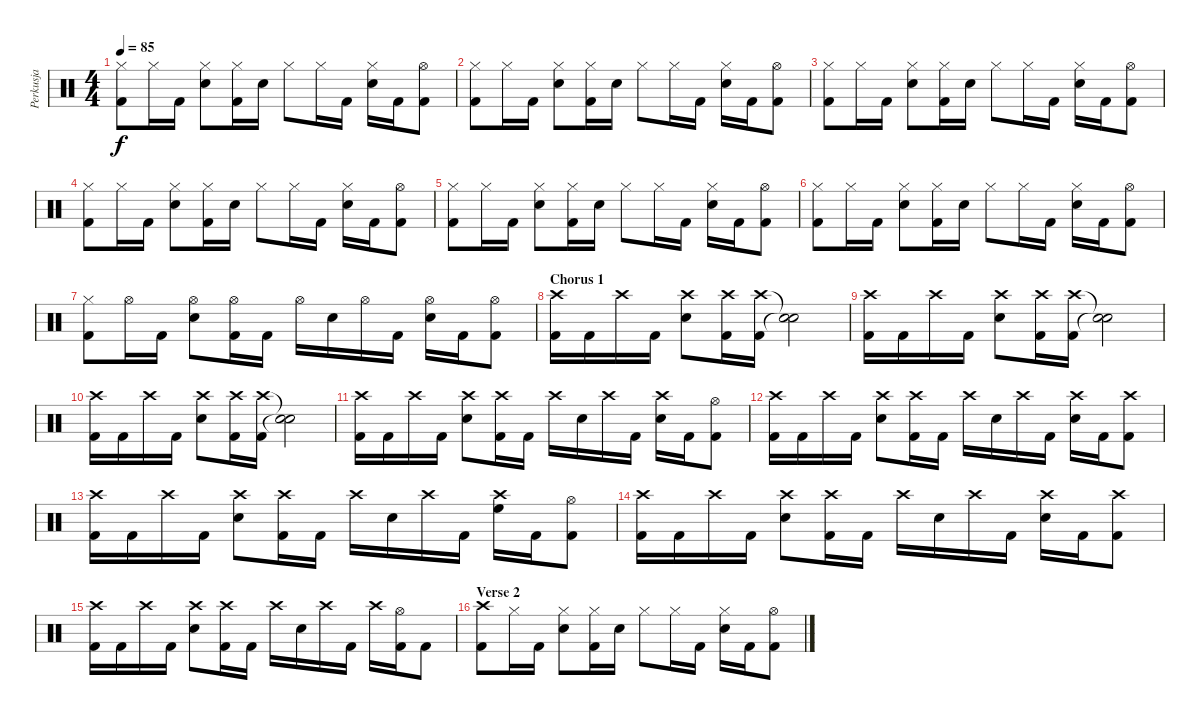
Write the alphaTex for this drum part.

\track ("Perkusja" "Perkusja") {instrument percussion}
\staff {score}
\articulation defaults
\ts (4 4)
\tempo 85
\clef neutral
\ks c
("Hi-Hat (closed)" "Kick (hit) 2").8{dy f} "Hi-Hat (closed)".16 "Kick (hit) 2".16 ("Hi-Hat (closed)" "Snare (hit) 2").8 ("Hi-Hat (closed)" "Kick (hit) 2").16 "Snare (hit) 2".16 "Hi-Hat (closed)".8 "Hi-Hat (closed)".16 "Kick (hit) 2".16 ("Hi-Hat (closed)" "Snare (hit) 2").16 "Kick (hit) 2".16 ("Hi-Hat (open)" "Kick (hit) 2").8 |
("Hi-Hat (closed)" "Kick (hit) 2").8 "Hi-Hat (closed)".16 "Kick (hit) 2".16 ("Hi-Hat (closed)" "Snare (hit) 2").8 ("Hi-Hat (closed)" "Kick (hit) 2").16 "Snare (hit) 2".16 "Hi-Hat (closed)".8 "Hi-Hat (closed)".16 "Kick (hit) 2".16 ("Hi-Hat (closed)" "Snare (hit) 2").16 "Kick (hit) 2".16 ("Hi-Hat (open)" "Kick (hit) 2").8 |
("Hi-Hat (closed)" "Kick (hit) 2").8 "Hi-Hat (closed)".16 "Kick (hit) 2".16 ("Hi-Hat (closed)" "Snare (hit) 2").8 ("Hi-Hat (closed)" "Kick (hit) 2").16 "Snare (hit) 2".16 "Hi-Hat (closed)".8 "Hi-Hat (closed)".16 "Kick (hit) 2".16 ("Hi-Hat (closed)" "Snare (hit) 2").16 "Kick (hit) 2".16 ("Hi-Hat (open)" "Kick (hit) 2").8 |
("Hi-Hat (closed)" "Kick (hit) 2").8 "Hi-Hat (closed)".16 "Kick (hit) 2".16 ("Hi-Hat (closed)" "Snare (hit) 2").8 ("Hi-Hat (closed)" "Kick (hit) 2").16 "Snare (hit) 2".16 "Hi-Hat (closed)".8 "Hi-Hat (closed)".16 "Kick (hit) 2".16 ("Hi-Hat (closed)" "Snare (hit) 2").16 "Kick (hit) 2".16 ("Hi-Hat (open)" "Kick (hit) 2").8 |
("Hi-Hat (closed)" "Kick (hit) 2").8 "Hi-Hat (closed)".16 "Kick (hit) 2".16 ("Hi-Hat (closed)" "Snare (hit) 2").8 ("Hi-Hat (closed)" "Kick (hit) 2").16 "Snare (hit) 2".16 "Hi-Hat (closed)".8 "Hi-Hat (closed)".16 "Kick (hit) 2".16 ("Hi-Hat (closed)" "Snare (hit) 2").16 "Kick (hit) 2".16 ("Hi-Hat (open)" "Kick (hit) 2").8 |
("Hi-Hat (closed)" "Kick (hit) 2").8 "Hi-Hat (closed)".16 "Kick (hit) 2".16 ("Hi-Hat (closed)" "Snare (hit) 2").8 ("Hi-Hat (closed)" "Kick (hit) 2").16 "Snare (hit) 2".16 "Hi-Hat (closed)".8 "Hi-Hat (closed)".16 "Kick (hit) 2".16 ("Hi-Hat (closed)" "Snare (hit) 2").16 "Kick (hit) 2".16 ("Hi-Hat (open)" "Kick (hit) 2").8 |
("Hi-Hat (closed)" "Kick (hit) 2").8 "Hi-Hat (open)".16 "Kick (hit) 2".16 ("Hi-Hat (open)" "Snare (hit) 2").8 ("Hi-Hat (open)" "Kick (hit) 2").16 "Kick (hit) 2".16 "Hi-Hat (open)".16 "Snare (hit) 2".16 "Hi-Hat (open)".16 "Kick (hit) 2".16 ("Hi-Hat (open)" "Snare (hit) 2").16 "Kick (hit) 2".16 ("Hi-Hat (open)" "Kick (hit) 2").8 |
\section ("" "Chorus 1")
("Crash high (hit)" "Kick (hit) 2").16 "Kick (hit) 2".16 "Crash high (hit)".16 "Kick (hit) 2".16 ("Crash high (hit)" "Snare (hit) 2").8 ("Crash high (hit)" "Kick (hit) 2").16 ("Crash high (hit)" "Kick (hit) 2").16 ("Snare (hit)"{t} "Snare (hit)"{t}).2 |
("Crash high (hit)" "Kick (hit) 2").16 "Kick (hit) 2".16 "Crash high (hit)".16 "Kick (hit) 2".16 ("Crash high (hit)" "Snare (hit) 2").8 ("Crash high (hit)" "Kick (hit) 2").16 ("Crash high (hit)" "Kick (hit) 2").16 ("Snare (hit)"{t} "Snare (hit)"{t}).2 |
("Crash high (hit)" "Kick (hit) 2").16 "Kick (hit) 2".16 "Crash high (hit)".16 "Kick (hit) 2".16 ("Crash high (hit)" "Snare (hit) 2").8 ("Crash high (hit)" "Kick (hit) 2").16 ("Crash high (hit)" "Kick (hit) 2").16 ("Snare (hit)"{t} "Snare (hit)"{t}).2 |
("Crash high (hit)" "Kick (hit) 2").16 "Kick (hit) 2".16 "Crash high (hit)".16 "Kick (hit) 2".16 ("Crash high (hit)" "Snare (hit) 2").8 ("Crash high (hit)" "Kick (hit) 2").16 "Kick (hit) 2".16 "Crash high (hit)".16 "Snare (hit) 2".16 "Crash high (hit)".16 "Kick (hit) 2".16 ("Crash high (hit)" "Snare (hit) 2").16 "Kick (hit) 2".16 ("Hi-Hat (open)" "Kick (hit) 2").8 |
("Crash high (hit)" "Kick (hit) 2").16 "Kick (hit) 2".16 "Crash high (hit)".16 "Kick (hit) 2".16 ("Crash high (hit)" "Snare (hit) 2").8 ("Crash high (hit)" "Kick (hit) 2").16 "Kick (hit) 2".16 "Crash high (hit)".16 "Snare (hit) 2".16 "Crash high (hit)".16 "Kick (hit) 2".16 ("Crash high (hit)" "Snare (hit) 2").16 "Kick (hit) 2".16 ("Crash high (hit)" "Kick (hit) 2").8 |
("Crash high (hit)" "Kick (hit) 2").16 "Kick (hit) 2".16 "Crash high (hit)".16 "Kick (hit) 2".16 ("Crash high (hit)" "Snare (hit) 2").8 ("Crash high (hit)" "Kick (hit) 2").16 "Kick (hit) 2".16 "Crash high (hit)".16 "Snare (hit) 2".16 "Crash high (hit)".16 "Kick (hit) 2".16 ("Crash high (hit)" "High Floor Tom (hit)").16 "Kick (hit) 2".16 ("Hi-Hat (open)" "Kick (hit) 2").8 |
("Crash high (hit)" "Kick (hit) 2").16 "Kick (hit) 2".16 "Crash high (hit)".16 "Kick (hit) 2".16 ("Crash high (hit)" "Snare (hit) 2").8 ("Crash high (hit)" "Kick (hit) 2").16 "Kick (hit) 2".16 "Crash high (hit)".16 "Snare (hit) 2".16 "Crash high (hit)".16 "Kick (hit) 2".16 ("Crash high (hit)" "Snare (hit) 2").16 "Kick (hit) 2".16 ("Crash high (hit)" "Kick (hit) 2").8 |
("Crash high (hit)" "Kick (hit) 2").16 "Kick (hit) 2".16 "Crash high (hit)".16 "Kick (hit) 2".16 ("Crash high (hit)" "Snare (hit) 2").8 ("Crash high (hit)" "Kick (hit) 2").16 "Kick (hit) 2".16 "Crash high (hit)".16 "Snare (hit) 2".16 "Crash high (hit)".16 "Kick (hit) 2".16 "Crash high (hit)".16 ("Hi-Hat (open)" "Kick (hit) 2").16 "Kick (hit) 2".8 |
\section ("" "Verse 2")
("Crash high (hit)" "Kick (hit) 2").8 "Hi-Hat (closed)".16 "Kick (hit) 2".16 ("Hi-Hat (closed)" "Snare (hit) 2").8 ("Hi-Hat (closed)" "Kick (hit) 2").16 "Snare (hit) 2".16 "Hi-Hat (closed)".8 "Hi-Hat (closed)".16 "Kick (hit) 2".16 ("Hi-Hat (closed)" "Snare (hit) 2").16 "Kick (hit) 2".16 ("Hi-Hat (open)" "Kick (hit) 2").8
